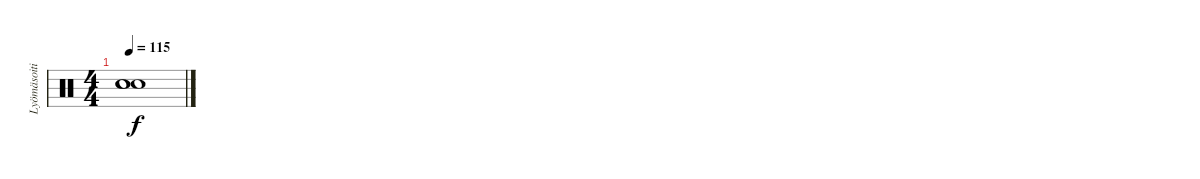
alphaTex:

\track ("Lyömäsoitin" "Lyömäsoiti") {instrument percussion}
\staff {score}
\articulation defaults
\ts (4 4)
\tempo 115
\clef neutral
\ks c
("Snare (hit)"{t} "Snare (hit)"{t} "Snare (hit)"{t}).1{dy f}
